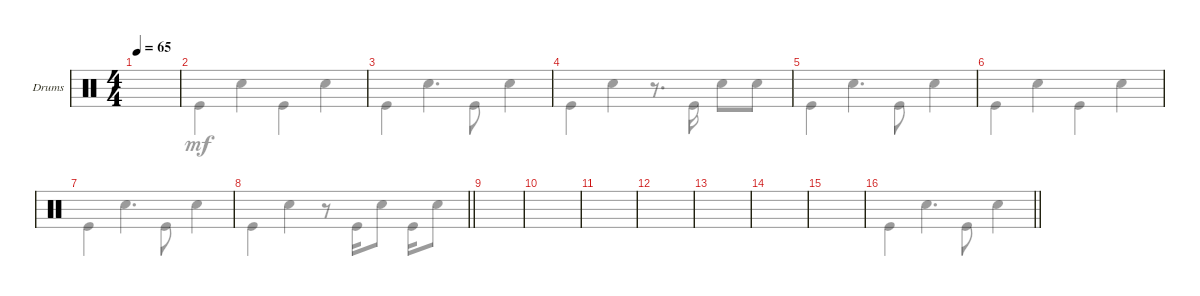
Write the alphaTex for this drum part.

\defaultSystemsLayout 4
\bracketExtendMode groupsimilarinstruments
\firstSystemTrackNameOrientation horizontal
\otherSystemsTrackNameOrientation horizontal
\track ("Drumkit" "Drums") {instrument percussion}
\staff {score}
\articulation defaults
\voice
\ts (4 4)
\scale
0.511348
\tempo 65
\accidentals auto
\clef neutral
\ottava regular
\simile none
\ks aminor
|
\scale
0.488207 |
\scale
0.50974 |
\scale
0.490374 |
\scale
0.521618 |
\scale
0.478408 |
\scale
0.531513 |
\scale
0.468066
\barLineRight lightlight
|
|
|
|
|
|
|
\scale
0.49045 |
\scale
0.509948
\barLineRight lightlight
\voice
\clef neutral
\ottava regular
\simile none
\ks aminor "Kick (hit)".4{dy mf} "Snare (hit) 2".4{d} "Kick (hit)".8 "Snare (hit) 2".4
|
"Kick (hit)".4 "Snare (hit) 2".4 "Kick (hit)".4 "Snare (hit) 2".4 |
"Kick (hit)".4 "Snare (hit) 2".4{d} "Kick (hit)".8 "Snare (hit) 2".4 |
"Kick (hit)".4 "Snare (hit) 2".4 r.8{d} "Kick (hit)".16 "Snare (hit) 2".8 "Snare (hit) 2".8 |
"Kick (hit)".4 "Snare (hit) 2".4{d} "Kick (hit)".8 "Snare (hit) 2".4 |
"Kick (hit)".4 "Snare (hit) 2".4 "Kick (hit)".4 "Snare (hit) 2".4 |
"Kick (hit)".4 "Snare (hit) 2".4{d} "Kick (hit)".8 "Snare (hit) 2".4 |
\barLineRight lightlight "Kick (hit)".4 "Snare (hit) 2".4
r.8 "Kick (hit)".16 "Snare (hit) 2".8 "Kick (hit)".16 "Snare (hit) 2".8 |
|
|
|
|
|
|
|
\barLineRight lightlight
